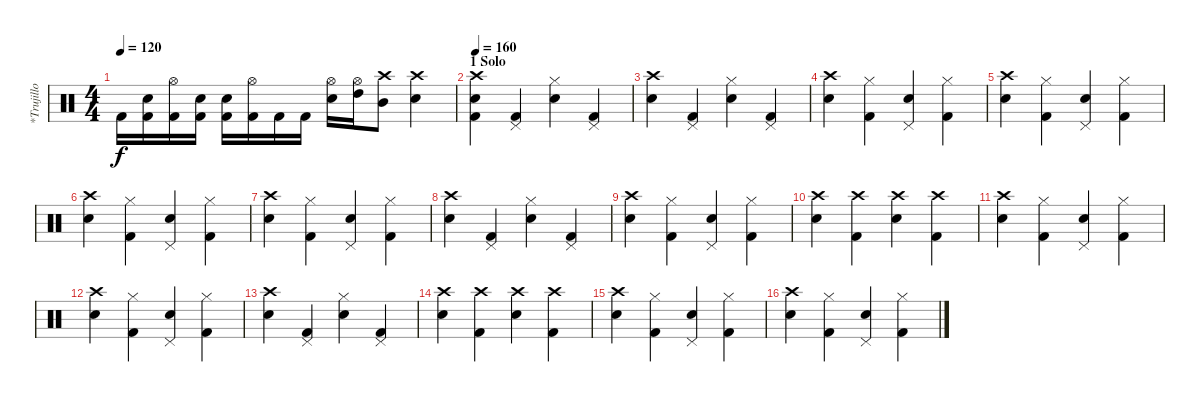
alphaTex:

\track ("*Trujillo" "*Trujillo") {instrument percussion}
\staff {score}
\articulation defaults
\ts (4 4)
\tempo 120
\clef neutral
\ks c "Kick (hit) 2".16{dy f}
("Electric Snare (hit)" "Kick (hit) 2").16 ("Hi-Hat (open)" "Kick (hit) 2").16 ("Snare (hit)" "Kick (hit) 2").16 ("Electric Snare (hit)" "Kick (hit) 2").16 ("Hi-Hat (open)" "Kick (hit) 2").16 "Kick (hit) 2".16 "Kick (hit) 2".16 ("Hi-Hat (open)" "Electric Snare (hit)").16 ("Hi-Hat (open)" "High Tom (hit)").16 ("Crash high (hit)" "Mid Tom (hit)").8 ("Crash high (hit)" "Snare (hit)").4 |
\section ("" "1 Solo")
\tempo 160
("Crash high (hit)" "Electric Snare (hit)" "Kick (hit) 2").4 ("Pedal Hi-Hat (hit)" "Kick (hit) 2").4 ("Hi-Hat (closed)" "Electric Snare (hit)").4 ("Pedal Hi-Hat (hit)" "Kick (hit) 2").4 |
("Crash high (hit)" "Electric Snare (hit)").4 ("Pedal Hi-Hat (hit)" "Kick (hit) 2").4 ("Hi-Hat (closed)" "Electric Snare (hit)").4 ("Pedal Hi-Hat (hit)" "Kick (hit) 2").4 |
("Crash high (hit)" "Electric Snare (hit)").4 ("Hi-Hat (closed)" "Kick (hit) 2").4 ("Pedal Hi-Hat (hit)" "Electric Snare (hit)").4 ("Hi-Hat (closed)" "Kick (hit) 2").4 |
("Crash high (hit)" "Electric Snare (hit)").4 ("Hi-Hat (closed)" "Kick (hit) 2").4 ("Pedal Hi-Hat (hit)" "Electric Snare (hit)").4 ("Hi-Hat (closed)" "Kick (hit) 2").4 |
("Crash high (hit)" "Electric Snare (hit)").4 ("Hi-Hat (closed)" "Kick (hit) 2").4 ("Pedal Hi-Hat (hit)" "Electric Snare (hit)").4 ("Hi-Hat (closed)" "Kick (hit) 2").4 |
("Crash high (hit)" "Electric Snare (hit)").4 ("Hi-Hat (closed)" "Kick (hit) 2").4 ("Pedal Hi-Hat (hit)" "Electric Snare (hit)").4 ("Hi-Hat (closed)" "Kick (hit) 2").4 |
("Crash high (hit)" "Electric Snare (hit)").4 ("Pedal Hi-Hat (hit)" "Kick (hit) 2").4 ("Hi-Hat (closed)" "Electric Snare (hit)").4 ("Pedal Hi-Hat (hit)" "Kick (hit) 2").4 |
("Crash high (hit)" "Electric Snare (hit)").4 ("Hi-Hat (closed)" "Kick (hit) 2").4 ("Pedal Hi-Hat (hit)" "Electric Snare (hit)").4 ("Hi-Hat (closed)" "Kick (hit) 2").4 |
("Crash high (hit)" "Electric Snare (hit)").4 ("Crash high (hit)" "Kick (hit) 2").4 ("Crash high (hit)" "Electric Snare (hit)").4 ("Crash high (hit)" "Kick (hit) 2").4 |
("Crash high (hit)" "Electric Snare (hit)").4 ("Hi-Hat (closed)" "Kick (hit) 2").4 ("Pedal Hi-Hat (hit)" "Electric Snare (hit)").4 ("Hi-Hat (closed)" "Kick (hit) 2").4 |
("Crash high (hit)" "Electric Snare (hit)").4 ("Hi-Hat (closed)" "Kick (hit) 2").4 ("Pedal Hi-Hat (hit)" "Electric Snare (hit)").4 ("Hi-Hat (closed)" "Kick (hit) 2").4 |
("Crash high (hit)" "Electric Snare (hit)").4 ("Pedal Hi-Hat (hit)" "Kick (hit) 2").4 ("Hi-Hat (closed)" "Electric Snare (hit)").4 ("Pedal Hi-Hat (hit)" "Kick (hit) 2").4 |
("Crash high (hit)" "Electric Snare (hit)").4 ("Crash high (hit)" "Kick (hit) 2").4 ("Crash high (hit)" "Electric Snare (hit)").4 ("Crash high (hit)" "Kick (hit) 2").4 |
("Crash high (hit)" "Electric Snare (hit)").4 ("Hi-Hat (closed)" "Kick (hit) 2").4 ("Pedal Hi-Hat (hit)" "Electric Snare (hit)").4 ("Hi-Hat (closed)" "Kick (hit) 2").4 |
("Crash high (hit)" "Electric Snare (hit)").4 ("Hi-Hat (closed)" "Kick (hit) 2").4 ("Pedal Hi-Hat (hit)" "Electric Snare (hit)").4 ("Hi-Hat (closed)" "Kick (hit) 2").4
